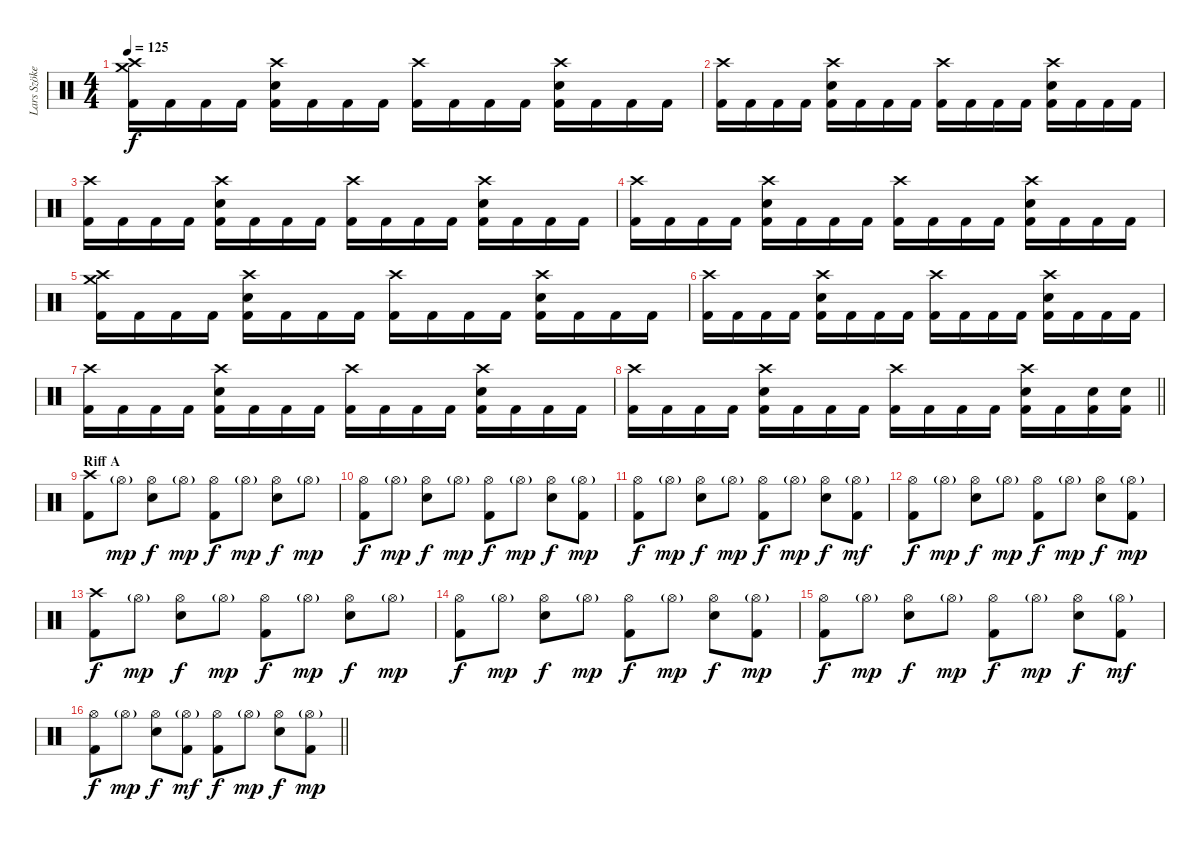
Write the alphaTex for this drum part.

\track ("Lars Szöke" "Lars Szöke") {instrument percussion}
\staff {score}
\articulation defaults
\ts (4 4)
\tempo 125
\clef neutral
\ks c
("Crash medium (hit)" "Crash high (hit)" "Kick (hit) 2").16{dy f} "Kick (hit) 2".16 "Kick (hit) 2".16 "Kick (hit) 2".16 ("Crash high (hit)" "Snare (hit) 2" "Kick (hit) 2").16 "Kick (hit) 2".16 "Kick (hit) 2".16 "Kick (hit) 2".16 ("Crash high (hit)" "Kick (hit) 2").16 "Kick (hit) 2".16 "Kick (hit) 2".16 "Kick (hit) 2".16 ("Crash high (hit)" "Snare (hit) 2" "Kick (hit) 2").16 "Kick (hit) 2".16 "Kick (hit) 2".16 "Kick (hit) 2".16 |
("Crash high (hit)" "Kick (hit) 2").16 "Kick (hit) 2".16 "Kick (hit) 2".16 "Kick (hit) 2".16 ("Crash high (hit)" "Snare (hit) 2" "Kick (hit) 2").16 "Kick (hit) 2".16 "Kick (hit) 2".16 "Kick (hit) 2".16 ("Crash high (hit)" "Kick (hit) 2").16 "Kick (hit) 2".16 "Kick (hit) 2".16 "Kick (hit) 2".16 ("Crash high (hit)" "Snare (hit) 2" "Kick (hit) 2").16 "Kick (hit) 2".16 "Kick (hit) 2".16 "Kick (hit) 2".16 |
("Crash high (hit)" "Kick (hit) 2").16 "Kick (hit) 2".16 "Kick (hit) 2".16 "Kick (hit) 2".16 ("Crash high (hit)" "Snare (hit) 2" "Kick (hit) 2").16 "Kick (hit) 2".16 "Kick (hit) 2".16 "Kick (hit) 2".16 ("Crash high (hit)" "Kick (hit) 2").16 "Kick (hit) 2".16 "Kick (hit) 2".16 "Kick (hit) 2".16 ("Crash high (hit)" "Snare (hit) 2" "Kick (hit) 2").16 "Kick (hit) 2".16 "Kick (hit) 2".16 "Kick (hit) 2".16 |
("Crash high (hit)" "Kick (hit) 2").16 "Kick (hit) 2".16 "Kick (hit) 2".16 "Kick (hit) 2".16 ("Crash high (hit)" "Snare (hit) 2" "Kick (hit) 2").16 "Kick (hit) 2".16 "Kick (hit) 2".16 "Kick (hit) 2".16 ("Crash high (hit)" "Kick (hit) 2").16 "Kick (hit) 2".16 "Kick (hit) 2".16 "Kick (hit) 2".16 ("Crash high (hit)" "Snare (hit) 2" "Kick (hit) 2").16 "Kick (hit) 2".16 "Kick (hit) 2".16 "Kick (hit) 2".16 |
("Crash medium (hit)" "Crash high (hit)" "Kick (hit) 2").16 "Kick (hit) 2".16 "Kick (hit) 2".16 "Kick (hit) 2".16 ("Crash high (hit)" "Snare (hit) 2" "Kick (hit) 2").16 "Kick (hit) 2".16 "Kick (hit) 2".16 "Kick (hit) 2".16 ("Crash high (hit)" "Kick (hit) 2").16 "Kick (hit) 2".16 "Kick (hit) 2".16 "Kick (hit) 2".16 ("Crash high (hit)" "Snare (hit) 2" "Kick (hit) 2").16 "Kick (hit) 2".16 "Kick (hit) 2".16 "Kick (hit) 2".16 |
("Crash high (hit)" "Kick (hit) 2").16 "Kick (hit) 2".16 "Kick (hit) 2".16 "Kick (hit) 2".16 ("Crash high (hit)" "Snare (hit) 2" "Kick (hit) 2").16 "Kick (hit) 2".16 "Kick (hit) 2".16 "Kick (hit) 2".16 ("Crash high (hit)" "Kick (hit) 2").16 "Kick (hit) 2".16 "Kick (hit) 2".16 "Kick (hit) 2".16 ("Crash high (hit)" "Snare (hit) 2" "Kick (hit) 2").16 "Kick (hit) 2".16 "Kick (hit) 2".16 "Kick (hit) 2".16 |
("Crash high (hit)" "Kick (hit) 2").16 "Kick (hit) 2".16 "Kick (hit) 2".16 "Kick (hit) 2".16 ("Crash high (hit)" "Snare (hit) 2" "Kick (hit) 2").16 "Kick (hit) 2".16 "Kick (hit) 2".16 "Kick (hit) 2".16 ("Crash high (hit)" "Kick (hit) 2").16 "Kick (hit) 2".16 "Kick (hit) 2".16 "Kick (hit) 2".16 ("Crash high (hit)" "Snare (hit) 2" "Kick (hit) 2").16 "Kick (hit) 2".16 "Kick (hit) 2".16 "Kick (hit) 2".16 |
\barLineRight lightlight
("Crash high (hit)" "Kick (hit) 2").16 "Kick (hit) 2".16 "Kick (hit) 2".16 "Kick (hit) 2".16 ("Crash high (hit)" "Snare (hit) 2" "Kick (hit) 2").16 "Kick (hit) 2".16 "Kick (hit) 2".16 "Kick (hit) 2".16 ("Crash high (hit)" "Kick (hit) 2").16 "Kick (hit) 2".16 "Kick (hit) 2".16 "Kick (hit) 2".16 ("Crash high (hit)" "Snare (hit) 2" "Kick (hit) 2").16 "Kick (hit) 2".16 ("Snare (hit) 2" "Kick (hit) 2").16 ("Snare (hit) 2" "Kick (hit) 2").16 |
\section ("" "Riff A")
("Crash high (hit)" "Kick (hit) 2").8 "Hi-Hat (open)"{g}.8{dy mp} ("Hi-Hat (open)" "Snare (hit) 2").8{dy f} "Hi-Hat (open)"{g}.8{dy mp} ("Hi-Hat (open)" "Kick (hit) 2").8{dy f} "Hi-Hat (open)"{g}.8{dy mp} ("Hi-Hat (open)" "Snare (hit) 2").8{dy f} "Hi-Hat (open)"{g}.8{dy mp} |
("Hi-Hat (open)" "Kick (hit) 2").8{dy f} "Hi-Hat (open)"{g}.8{dy mp} ("Hi-Hat (open)" "Snare (hit) 2").8{dy f} "Hi-Hat (open)"{g}.8{dy mp} ("Hi-Hat (open)" "Kick (hit) 2").8{dy f} "Hi-Hat (open)"{g}.8{dy mp} ("Hi-Hat (open)" "Snare (hit) 2").8{dy f} ("Hi-Hat (open)"{g} "Kick (hit) 2").8{dy mp} |
("Hi-Hat (open)" "Kick (hit) 2").8{dy f} "Hi-Hat (open)"{g}.8{dy mp} ("Hi-Hat (open)" "Snare (hit) 2").8{dy f} "Hi-Hat (open)"{g}.8{dy mp} ("Hi-Hat (open)" "Kick (hit) 2").8{dy f} "Hi-Hat (open)"{g}.8{dy mp} ("Hi-Hat (open)" "Snare (hit) 2").8{dy f} ("Hi-Hat (open)"{g} "Kick (hit) 2").8{dy mf} |
("Hi-Hat (open)" "Kick (hit) 2").8{dy f} "Hi-Hat (open)"{g}.8{dy mp} ("Hi-Hat (open)" "Snare (hit) 2").8{dy f} "Hi-Hat (open)"{g}.8{dy mp} ("Hi-Hat (open)" "Kick (hit) 2").8{dy f} "Hi-Hat (open)"{g}.8{dy mp} ("Hi-Hat (open)" "Snare (hit) 2").8{dy f} ("Hi-Hat (open)"{g} "Kick (hit) 2").8{dy mp} |
("Crash high (hit)" "Kick (hit) 2").8{dy f} "Hi-Hat (open)"{g}.8{dy mp} ("Hi-Hat (open)" "Snare (hit) 2").8{dy f} "Hi-Hat (open)"{g}.8{dy mp} ("Hi-Hat (open)" "Kick (hit) 2").8{dy f} "Hi-Hat (open)"{g}.8{dy mp} ("Hi-Hat (open)" "Snare (hit) 2").8{dy f} "Hi-Hat (open)"{g}.8{dy mp} |
("Hi-Hat (open)" "Kick (hit) 2").8{dy f} "Hi-Hat (open)"{g}.8{dy mp} ("Hi-Hat (open)" "Snare (hit) 2").8{dy f} "Hi-Hat (open)"{g}.8{dy mp} ("Hi-Hat (open)" "Kick (hit) 2").8{dy f} "Hi-Hat (open)"{g}.8{dy mp} ("Hi-Hat (open)" "Snare (hit) 2").8{dy f} ("Hi-Hat (open)"{g} "Kick (hit) 2").8{dy mp} |
("Hi-Hat (open)" "Kick (hit) 2").8{dy f} "Hi-Hat (open)"{g}.8{dy mp} ("Hi-Hat (open)" "Snare (hit) 2").8{dy f} "Hi-Hat (open)"{g}.8{dy mp} ("Hi-Hat (open)" "Kick (hit) 2").8{dy f} "Hi-Hat (open)"{g}.8{dy mp} ("Hi-Hat (open)" "Snare (hit) 2").8{dy f} ("Hi-Hat (open)"{g} "Kick (hit) 2").8{dy mf} |
\barLineRight lightlight
("Hi-Hat (open)" "Kick (hit) 2").8{dy f} "Hi-Hat (open)"{g}.8{dy mp} ("Hi-Hat (open)" "Snare (hit) 2").8{dy f} ("Hi-Hat (open)"{g} "Kick (hit) 2").8{dy mf} ("Hi-Hat (open)" "Kick (hit) 2").8{dy f} "Hi-Hat (open)"{g}.8{dy mp} ("Hi-Hat (open)" "Snare (hit) 2").8{dy f} ("Hi-Hat (open)"{g} "Kick (hit) 2").8{dy mp}
